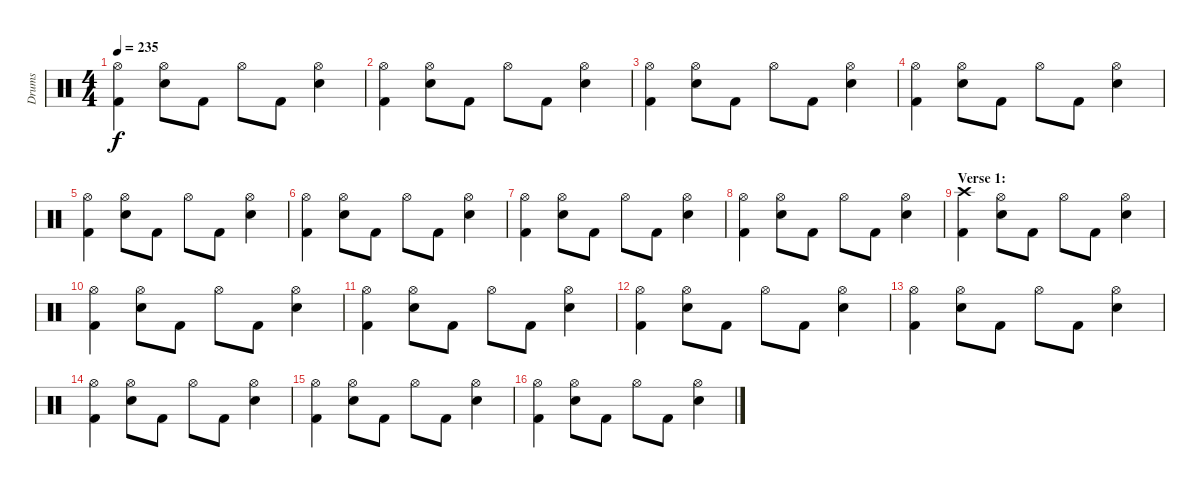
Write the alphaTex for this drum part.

\track ("Drums" "Drums") {instrument percussion}
\staff {score}
\articulation defaults
\ts (4 4)
\tempo 235
\clef neutral
\ks c
("Hi-Hat (open)" "Kick (hit) 2").4{dy f} ("Hi-Hat (open)" "Snare (hit) 2").8 "Kick (hit) 2".8 "Hi-Hat (open)".8 "Kick (hit) 2".8 ("Hi-Hat (open)" "Snare (hit) 2").4 |
("Hi-Hat (open)" "Kick (hit) 2").4 ("Hi-Hat (open)" "Snare (hit) 2").8 "Kick (hit) 2".8 "Hi-Hat (open)".8 "Kick (hit) 2".8 ("Hi-Hat (open)" "Snare (hit) 2").4 |
("Hi-Hat (open)" "Kick (hit) 2").4 ("Hi-Hat (open)" "Snare (hit) 2").8 "Kick (hit) 2".8 "Hi-Hat (open)".8 "Kick (hit) 2".8 ("Hi-Hat (open)" "Snare (hit) 2").4 |
("Hi-Hat (open)" "Kick (hit) 2").4 ("Hi-Hat (open)" "Snare (hit) 2").8 "Kick (hit) 2".8 "Hi-Hat (open)".8 "Kick (hit) 2".8 ("Hi-Hat (open)" "Snare (hit) 2").4 |
("Hi-Hat (open)" "Kick (hit) 2").4 ("Hi-Hat (open)" "Snare (hit) 2").8 "Kick (hit) 2".8 "Hi-Hat (open)".8 "Kick (hit) 2".8 ("Hi-Hat (open)" "Snare (hit) 2").4 |
("Hi-Hat (open)" "Kick (hit) 2").4 ("Hi-Hat (open)" "Snare (hit) 2").8 "Kick (hit) 2".8 "Hi-Hat (open)".8 "Kick (hit) 2".8 ("Hi-Hat (open)" "Snare (hit) 2").4 |
("Hi-Hat (open)" "Kick (hit) 2").4 ("Hi-Hat (open)" "Snare (hit) 2").8 "Kick (hit) 2".8 "Hi-Hat (open)".8 "Kick (hit) 2".8 ("Hi-Hat (open)" "Snare (hit) 2").4 |
("Hi-Hat (open)" "Kick (hit) 2").4 ("Hi-Hat (open)" "Snare (hit) 2").8 "Kick (hit) 2".8 "Hi-Hat (open)".8 "Kick (hit) 2".8 ("Hi-Hat (open)" "Snare (hit) 2").4 |
\section ("" "Verse 1:")
("Crash high (hit)" "Kick (hit) 2").4 ("Hi-Hat (open)" "Snare (hit) 2").8 "Kick (hit) 2".8 "Hi-Hat (open)".8 "Kick (hit) 2".8 ("Hi-Hat (open)" "Snare (hit) 2").4 |
("Hi-Hat (open)" "Kick (hit) 2").4 ("Hi-Hat (open)" "Snare (hit) 2").8 "Kick (hit) 2".8 "Hi-Hat (open)".8 "Kick (hit) 2".8 ("Hi-Hat (open)" "Snare (hit) 2").4 |
("Hi-Hat (open)" "Kick (hit) 2").4 ("Hi-Hat (open)" "Snare (hit) 2").8 "Kick (hit) 2".8 "Hi-Hat (open)".8 "Kick (hit) 2".8 ("Hi-Hat (open)" "Snare (hit) 2").4 |
("Hi-Hat (open)" "Kick (hit) 2").4 ("Hi-Hat (open)" "Snare (hit) 2").8 "Kick (hit) 2".8 "Hi-Hat (open)".8 "Kick (hit) 2".8 ("Hi-Hat (open)" "Snare (hit) 2").4 |
("Hi-Hat (open)" "Kick (hit) 2").4 ("Hi-Hat (open)" "Snare (hit) 2").8 "Kick (hit) 2".8 "Hi-Hat (open)".8 "Kick (hit) 2".8 ("Hi-Hat (open)" "Snare (hit) 2").4 |
("Hi-Hat (open)" "Kick (hit) 2").4 ("Hi-Hat (open)" "Snare (hit) 2").8 "Kick (hit) 2".8 "Hi-Hat (open)".8 "Kick (hit) 2".8 ("Hi-Hat (open)" "Snare (hit) 2").4 |
("Hi-Hat (open)" "Kick (hit) 2").4 ("Hi-Hat (open)" "Snare (hit) 2").8 "Kick (hit) 2".8 "Hi-Hat (open)".8 "Kick (hit) 2".8 ("Hi-Hat (open)" "Snare (hit) 2").4 |
("Hi-Hat (open)" "Kick (hit) 2").4 ("Hi-Hat (open)" "Snare (hit) 2").8 "Kick (hit) 2".8 "Hi-Hat (open)".8 "Kick (hit) 2".8 ("Hi-Hat (open)" "Snare (hit) 2").4
